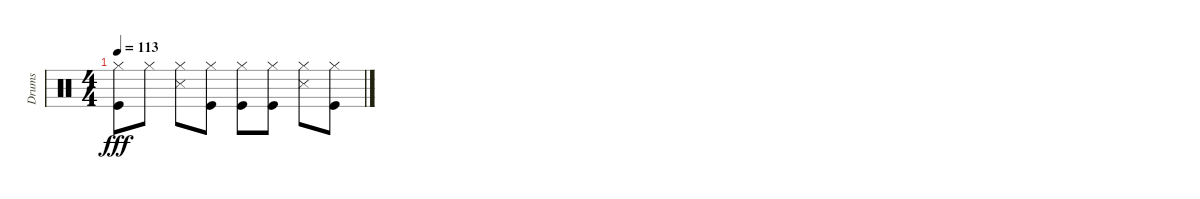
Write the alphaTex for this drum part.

\track ("Drums" "Drums") {instrument percussion}
\staff {score}
\articulation defaults
\ts (4 4)
\tempo 113
\clef neutral
\ks c
("Kick (hit)" "Hi-Hat (closed)").8{dy fff} "Hi-Hat (closed)".8 ("Snare (side stick) 3" "Hi-Hat (closed)").8 ("Kick (hit)" "Hi-Hat (closed)").8 ("Kick (hit)" "Hi-Hat (closed)").8 ("Kick (hit)" "Hi-Hat (closed)").8 ("Snare (side stick) 3" "Hi-Hat (closed)").8 ("Kick (hit)" "Hi-Hat (closed)").8
